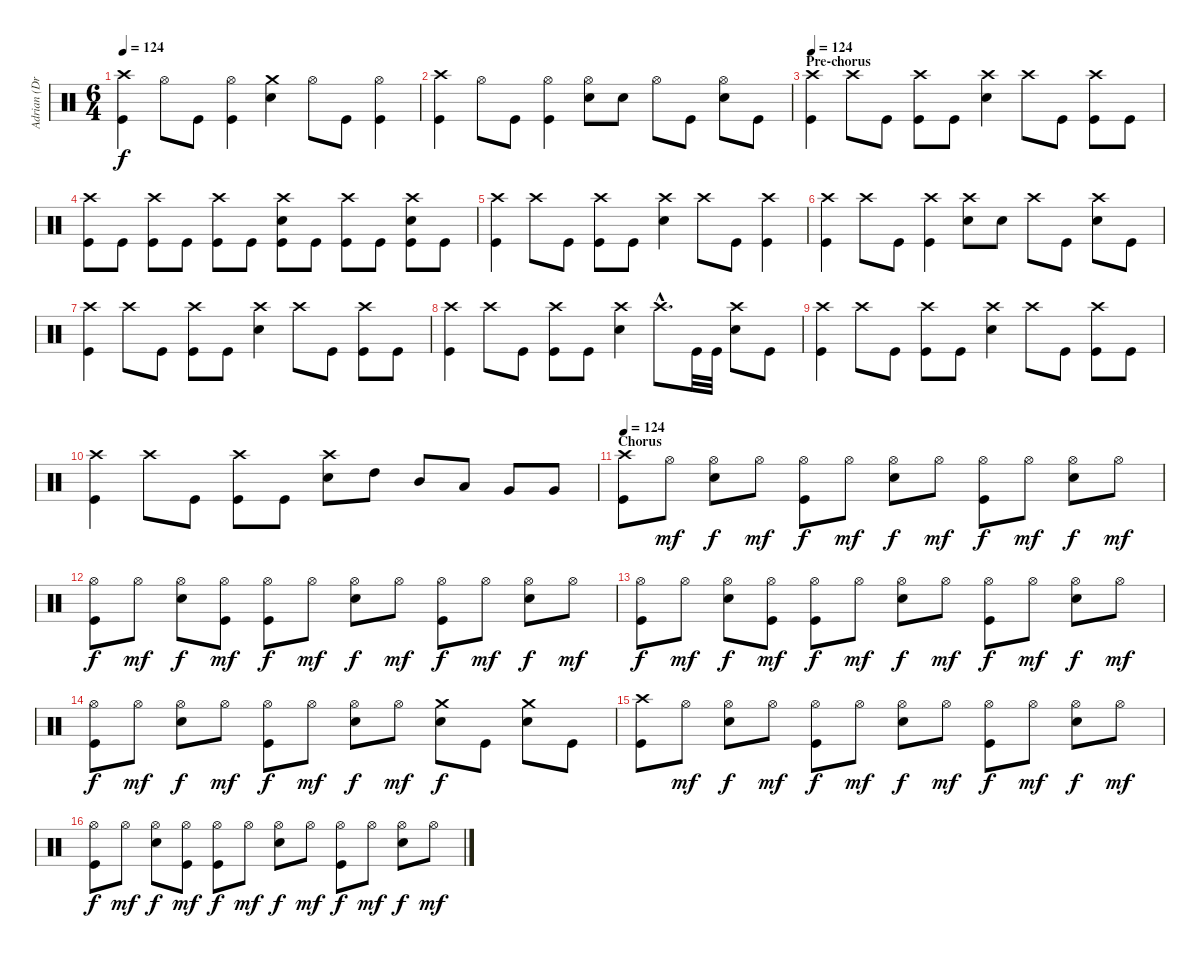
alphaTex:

\track ("Adrian (Drums)" "Adrian (Dr") {instrument percussion}
\staff {score}
\articulation defaults
\ts (6 4)
\tempo 124
\clef neutral
\ks c
("Crash high (hit)" "Kick (hit)").4{dy f} "Hi-Hat (open)".8 "Kick (hit)".8 ("Hi-Hat (open)" "Kick (hit)").4 ("Crash medium (hit)" "Electric Snare (hit)").4 "Hi-Hat (open)".8 "Kick (hit)".8 ("Hi-Hat (open)" "Kick (hit)").4 |
("Crash high (hit)" "Kick (hit)").4 "Hi-Hat (open)".8 "Kick (hit)".8 ("Hi-Hat (open)" "Kick (hit)").4 ("Hi-Hat (open)" "Electric Snare (hit)").8 "Electric Snare (hit)".8 "Hi-Hat (open)".8 "Kick (hit)".8 ("Hi-Hat (open)" "Electric Snare (hit)").8 "Kick (hit)".8 |
\section ("" "Pre-chorus")
\tempo 124
("Crash high (hit)" "Kick (hit)").4 "Crash high (hit)".8 "Kick (hit)".8 ("Crash high (hit)" "Kick (hit)").8 "Kick (hit)".8 ("Crash high (hit)" "Electric Snare (hit)").4 "Crash high (hit)".8 "Kick (hit)".8 ("Crash high (hit)" "Kick (hit)").8 "Kick (hit)".8 |
("Crash high (hit)" "Kick (hit)").8 "Kick (hit)".8 ("Crash high (hit)" "Kick (hit)").8 "Kick (hit)".8 ("Crash high (hit)" "Kick (hit)").8 "Kick (hit)".8 ("Crash high (hit)" "Electric Snare (hit)" "Kick (hit)").8 "Kick (hit)".8 ("Crash high (hit)" "Kick (hit)").8 "Kick (hit)".8 ("Crash high (hit)" "Electric Snare (hit)" "Kick (hit)").8 "Kick (hit)".8 |
("Crash high (hit)" "Kick (hit)").4 "Crash high (hit)".8 "Kick (hit)".8 ("Crash high (hit)" "Kick (hit)").8 "Kick (hit)".8 ("Crash high (hit)" "Electric Snare (hit)").4 "Crash high (hit)".8 "Kick (hit)".8 ("Crash high (hit)" "Kick (hit)").4 |
("Crash high (hit)" "Kick (hit)").4 "Crash high (hit)".8 "Kick (hit)".8 ("Crash high (hit)" "Kick (hit)").4 ("Crash high (hit)" "Electric Snare (hit)").8 "Electric Snare (hit)".8 "Crash high (hit)".8 "Kick (hit)".8 ("Crash high (hit)" "Electric Snare (hit)").8 "Kick (hit)".8 |
("Crash high (hit)" "Kick (hit)").4 "Crash high (hit)".8 "Kick (hit)".8 ("Crash high (hit)" "Kick (hit)").8 "Kick (hit)".8 ("Crash high (hit)" "Electric Snare (hit)").4 "Crash high (hit)".8 "Kick (hit)".8 ("Crash high (hit)" "Kick (hit)").8 "Kick (hit)".8 |
("Crash high (hit)" "Kick (hit)").4 "Crash high (hit)".8 "Kick (hit)".8 ("Crash high (hit)" "Kick (hit)").8 "Kick (hit)".8 ("Crash high (hit)" "Electric Snare (hit)").4 "Crash high (hit)"{hac}.8{d} "Kick (hit)".32 "Kick (hit)".32 ("Crash high (hit)" "Electric Snare (hit)").8 "Kick (hit)".8 |
("Crash high (hit)" "Kick (hit)").4 "Crash high (hit)".8 "Kick (hit)".8 ("Crash high (hit)" "Kick (hit)").8 "Kick (hit)".8 ("Crash high (hit)" "Electric Snare (hit)").4 "Crash high (hit)".8 "Kick (hit)".8 ("Crash high (hit)" "Kick (hit)").8 "Kick (hit)".8 |
("Crash high (hit)" "Kick (hit)").4 "Crash high (hit)".8 "Kick (hit)".8 ("Crash high (hit)" "Kick (hit)").8 "Kick (hit)".8 ("Crash high (hit)" "Electric Snare (hit)").8 "High Tom (hit)".8 "Mid Tom (hit)".8 "Low Tom (hit)".8 "Very Low Tom (hit)".8 "Very Low Tom (hit)".8 |
\section ("" "Chorus")
\tempo 124
("Crash high (hit)" "Kick (hit)").8 "Hi-Hat (open)".8{dy mf} ("Hi-Hat (open)" "Electric Snare (hit)").8{dy f} "Hi-Hat (open)".8{dy mf} ("Hi-Hat (open)" "Kick (hit)").8{dy f} "Hi-Hat (open)".8{dy mf} ("Hi-Hat (open)" "Electric Snare (hit)").8{dy f} "Hi-Hat (open)".8{dy mf} ("Hi-Hat (open)" "Kick (hit)").8{dy f} "Hi-Hat (open)".8{dy mf} ("Hi-Hat (open)" "Electric Snare (hit)").8{dy f} "Hi-Hat (open)".8{dy mf} |
("Hi-Hat (open)" "Kick (hit)").8{dy f} "Hi-Hat (open)".8{dy mf} ("Hi-Hat (open)" "Electric Snare (hit)").8{dy f} ("Hi-Hat (open)" "Kick (hit)").8{dy mf} ("Hi-Hat (open)" "Kick (hit)").8{dy f} "Hi-Hat (open)".8{dy mf} ("Hi-Hat (open)" "Electric Snare (hit)").8{dy f} "Hi-Hat (open)".8{dy mf} ("Hi-Hat (open)" "Kick (hit)").8{dy f} "Hi-Hat (open)".8{dy mf} ("Hi-Hat (open)" "Electric Snare (hit)").8{dy f} "Hi-Hat (open)".8{dy mf} |
("Hi-Hat (open)" "Kick (hit)").8{dy f} "Hi-Hat (open)".8{dy mf} ("Hi-Hat (open)" "Electric Snare (hit)").8{dy f} ("Hi-Hat (open)" "Kick (hit)").8{dy mf} ("Hi-Hat (open)" "Kick (hit)").8{dy f} "Hi-Hat (open)".8{dy mf} ("Hi-Hat (open)" "Electric Snare (hit)").8{dy f} "Hi-Hat (open)".8{dy mf} ("Hi-Hat (open)" "Kick (hit)").8{dy f} "Hi-Hat (open)".8{dy mf} ("Hi-Hat (open)" "Electric Snare (hit)").8{dy f} "Hi-Hat (open)".8{dy mf} |
("Hi-Hat (open)" "Kick (hit)").8{dy f} "Hi-Hat (open)".8{dy mf} ("Hi-Hat (open)" "Electric Snare (hit)").8{dy f} "Hi-Hat (open)".8{dy mf} ("Hi-Hat (open)" "Kick (hit)").8{dy f} "Hi-Hat (open)".8{dy mf} ("Hi-Hat (open)" "Electric Snare (hit)").8{dy f} "Hi-Hat (open)".8{dy mf} ("Crash medium (hit)" "Electric Snare (hit)").8{dy f} "Kick (hit)".8 ("Crash medium (hit)" "Electric Snare (hit)").8 "Kick (hit)".8 |
("Crash high (hit)" "Kick (hit)").8 "Hi-Hat (open)".8{dy mf} ("Hi-Hat (open)" "Electric Snare (hit)").8{dy f} "Hi-Hat (open)".8{dy mf} ("Hi-Hat (open)" "Kick (hit)").8{dy f} "Hi-Hat (open)".8{dy mf} ("Hi-Hat (open)" "Electric Snare (hit)").8{dy f} "Hi-Hat (open)".8{dy mf} ("Hi-Hat (open)" "Kick (hit)").8{dy f} "Hi-Hat (open)".8{dy mf} ("Hi-Hat (open)" "Electric Snare (hit)").8{dy f} "Hi-Hat (open)".8{dy mf} |
("Hi-Hat (open)" "Kick (hit)").8{dy f} "Hi-Hat (open)".8{dy mf} ("Hi-Hat (open)" "Electric Snare (hit)").8{dy f} ("Hi-Hat (open)" "Kick (hit)").8{dy mf} ("Hi-Hat (open)" "Kick (hit)").8{dy f} "Hi-Hat (open)".8{dy mf} ("Hi-Hat (open)" "Electric Snare (hit)").8{dy f} "Hi-Hat (open)".8{dy mf} ("Hi-Hat (open)" "Kick (hit)").8{dy f} "Hi-Hat (open)".8{dy mf} ("Hi-Hat (open)" "Electric Snare (hit)").8{dy f} "Hi-Hat (open)".8{dy mf}
